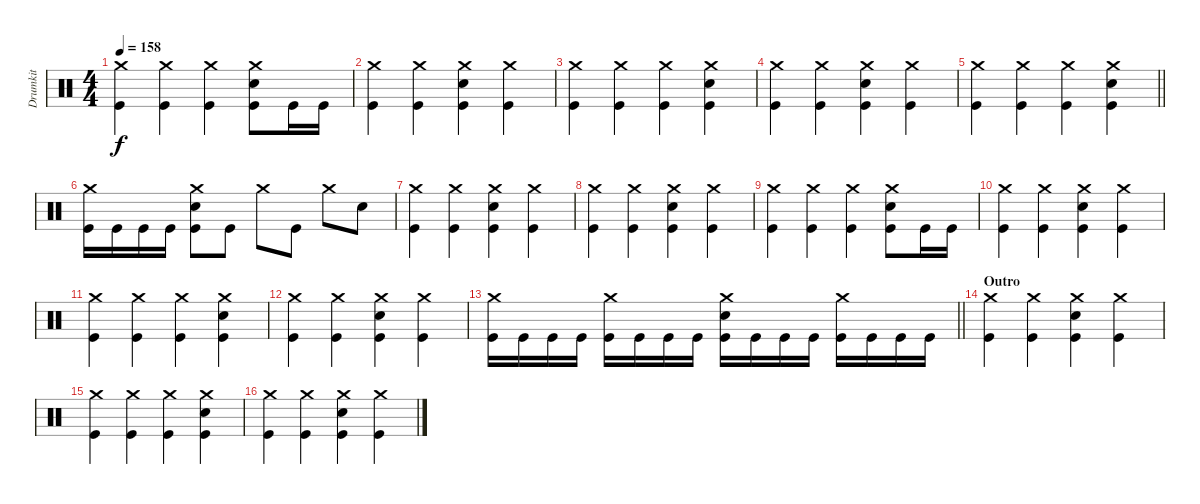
\track ("Drumkit" "Drumkit") {instrument percussion}
\staff {score}
\articulation defaults
\ts (4 4)
\tempo 158
\clef neutral
\ks c
("Crash medium (hit)" "Kick (hit)").4{dy f} ("Crash medium (hit)" "Kick (hit)").4 ("Crash medium (hit)" "Kick (hit)").4 ("Crash medium (hit)" "Snare (hit) 2" "Kick (hit)").8 "Kick (hit)".16 "Kick (hit)".16 |
("Crash medium (hit)" "Kick (hit)").4 ("Crash medium (hit)" "Kick (hit)").4 ("Crash medium (hit)" "Snare (hit) 2" "Kick (hit)").4 ("Crash medium (hit)" "Kick (hit)").4 |
("Crash medium (hit)" "Kick (hit)").4 ("Crash medium (hit)" "Kick (hit)").4 ("Crash medium (hit)" "Kick (hit)").4 ("Crash medium (hit)" "Snare (hit) 2" "Kick (hit)").4 |
("Crash medium (hit)" "Kick (hit)").4 ("Crash medium (hit)" "Kick (hit)").4 ("Crash medium (hit)" "Snare (hit) 2" "Kick (hit)").4 ("Crash medium (hit)" "Kick (hit)").4 |
\barLineRight lightlight
("Crash medium (hit)" "Kick (hit)").4 ("Crash medium (hit)" "Kick (hit)").4 ("Crash medium (hit)" "Kick (hit)").4 ("Crash medium (hit)" "Snare (hit) 2" "Kick (hit)").4 |
\section ("" "")
("Crash medium (hit)" "Kick (hit)").16 "Kick (hit)".16 "Kick (hit)".16 "Kick (hit)".16 ("Crash medium (hit)" "Snare (hit) 2" "Kick (hit)").8 "Kick (hit)".8 "Crash medium (hit)".8 "Kick (hit)".8 "Crash medium (hit)".8 "Snare (hit) 2".8 |
("Crash medium (hit)" "Kick (hit)").4 ("Crash medium (hit)" "Kick (hit)").4 ("Crash medium (hit)" "Snare (hit) 2" "Kick (hit)").4 ("Crash medium (hit)" "Kick (hit)").4 |
("Crash medium (hit)" "Kick (hit)").4 ("Crash medium (hit)" "Kick (hit)").4 ("Crash medium (hit)" "Snare (hit) 2" "Kick (hit)").4 ("Crash medium (hit)" "Kick (hit)").4 |
("Crash medium (hit)" "Kick (hit)").4 ("Crash medium (hit)" "Kick (hit)").4 ("Crash medium (hit)" "Kick (hit)").4 ("Crash medium (hit)" "Snare (hit) 2" "Kick (hit)").8 "Kick (hit)".16 "Kick (hit)".16 |
("Crash medium (hit)" "Kick (hit)").4 ("Crash medium (hit)" "Kick (hit)").4 ("Crash medium (hit)" "Snare (hit) 2" "Kick (hit)").4 ("Crash medium (hit)" "Kick (hit)").4 |
("Crash medium (hit)" "Kick (hit)").4 ("Crash medium (hit)" "Kick (hit)").4 ("Crash medium (hit)" "Kick (hit)").4 ("Crash medium (hit)" "Snare (hit) 2" "Kick (hit)").4 |
("Crash medium (hit)" "Kick (hit)").4 ("Crash medium (hit)" "Kick (hit)").4 ("Crash medium (hit)" "Snare (hit) 2" "Kick (hit)").4 ("Crash medium (hit)" "Kick (hit)").4 |
\barLineRight lightlight
("Crash medium (hit)" "Kick (hit)").16 "Kick (hit)".16 "Kick (hit)".16 "Kick (hit)".16 ("Crash medium (hit)" "Kick (hit)").16 "Kick (hit)".16 "Kick (hit)".16 "Kick (hit)".16 ("Crash medium (hit)" "Snare (hit) 2" "Kick (hit)").16 "Kick (hit)".16 "Kick (hit)".16 "Kick (hit)".16 ("Crash medium (hit)" "Kick (hit)").16 "Kick (hit)".16 "Kick (hit)".16 "Kick (hit)".16 |
\section ("" "Outro")
("Crash medium (hit)" "Kick (hit)").4{volume 12} ("Crash medium (hit)" "Kick (hit)").4 ("Crash medium (hit)" "Snare (hit) 2" "Kick (hit)").4 ("Crash medium (hit)" "Kick (hit)").4 |
("Crash medium (hit)" "Kick (hit)").4 ("Crash medium (hit)" "Kick (hit)").4 ("Crash medium (hit)" "Kick (hit)").4 ("Crash medium (hit)" "Snare (hit) 2" "Kick (hit)").4 |
("Crash medium (hit)" "Kick (hit)").4 ("Crash medium (hit)" "Kick (hit)").4 ("Crash medium (hit)" "Snare (hit) 2" "Kick (hit)").4 ("Crash medium (hit)" "Kick (hit)").4
